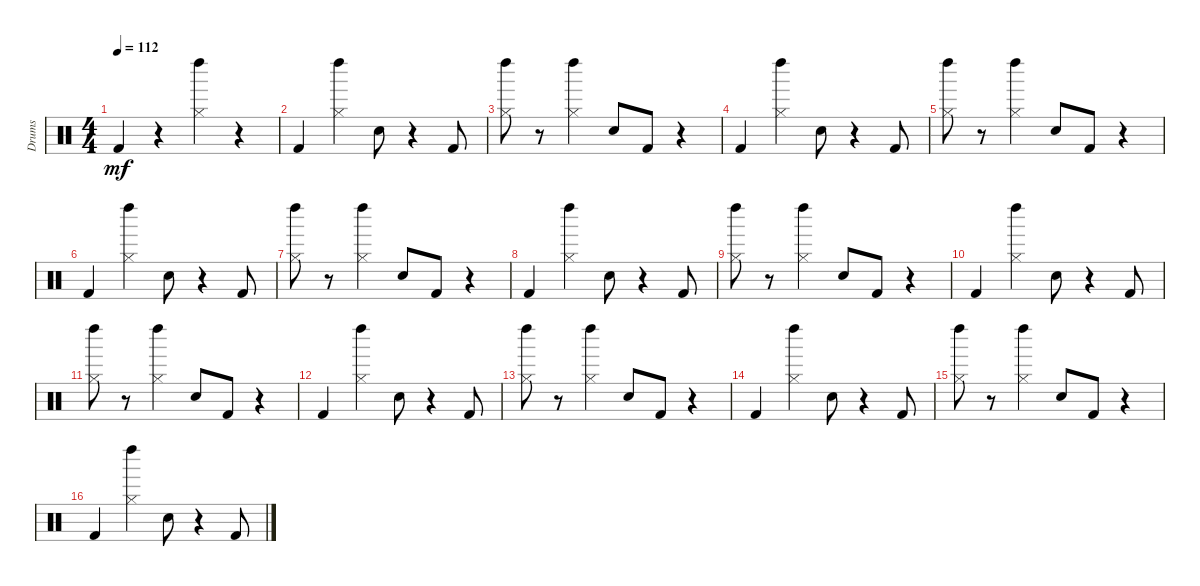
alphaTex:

\track ("Drums" "Drums") {instrument percussion}
\staff {score}
\articulation defaults
\ts (4 4)
\tempo 112
\clef neutral
\ks c "Kick (hit) 2".4{dy mf}
r.4 ("Hi-Hat (closed)" "Left Maraca (hit)").4 r.4 |
"Kick (hit) 2".4 ("Left Maraca (hit)" "Hi-Hat (closed)").4 "Snare (hit) 2".8 r.4 "Kick (hit) 2".8 |
("Left Maraca (hit)" "Hi-Hat (closed)").8 r.8 ("Left Maraca (hit)" "Hi-Hat (closed)").4 "Snare (hit) 2".8 "Kick (hit) 2".8 r.4 |
"Kick (hit) 2".4 ("Left Maraca (hit)" "Hi-Hat (closed)").4 "Snare (hit) 2".8 r.4 "Kick (hit) 2".8 |
("Left Maraca (hit)" "Hi-Hat (closed)").8 r.8 ("Left Maraca (hit)" "Hi-Hat (closed)").4 "Snare (hit) 2".8 "Kick (hit) 2".8 r.4 |
"Kick (hit) 2".4 ("Left Maraca (hit)" "Hi-Hat (closed)").4 "Snare (hit) 2".8 r.4 "Kick (hit) 2".8 |
("Left Maraca (hit)" "Hi-Hat (closed)").8 r.8 ("Left Maraca (hit)" "Hi-Hat (closed)").4 "Snare (hit) 2".8 "Kick (hit) 2".8 r.4 |
"Kick (hit) 2".4 ("Left Maraca (hit)" "Hi-Hat (closed)").4 "Snare (hit) 2".8 r.4 "Kick (hit) 2".8 |
("Left Maraca (hit)" "Hi-Hat (closed)").8 r.8 ("Left Maraca (hit)" "Hi-Hat (closed)").4 "Snare (hit) 2".8 "Kick (hit) 2".8 r.4 |
"Kick (hit) 2".4 ("Left Maraca (hit)" "Hi-Hat (closed)").4 "Snare (hit) 2".8 r.4 "Kick (hit) 2".8 |
("Left Maraca (hit)" "Hi-Hat (closed)").8 r.8 ("Left Maraca (hit)" "Hi-Hat (closed)").4 "Snare (hit) 2".8 "Kick (hit) 2".8 r.4 |
"Kick (hit) 2".4 ("Left Maraca (hit)" "Hi-Hat (closed)").4 "Snare (hit) 2".8 r.4 "Kick (hit) 2".8 |
("Left Maraca (hit)" "Hi-Hat (closed)").8 r.8 ("Left Maraca (hit)" "Hi-Hat (closed)").4 "Snare (hit) 2".8 "Kick (hit) 2".8 r.4 |
"Kick (hit) 2".4 ("Left Maraca (hit)" "Hi-Hat (closed)").4 "Snare (hit) 2".8 r.4 "Kick (hit) 2".8 |
("Left Maraca (hit)" "Hi-Hat (closed)").8 r.8 ("Left Maraca (hit)" "Hi-Hat (closed)").4 "Snare (hit) 2".8 "Kick (hit) 2".8 r.4 |
"Kick (hit) 2".4 ("Left Maraca (hit)" "Hi-Hat (closed)").4 "Snare (hit) 2".8 r.4 "Kick (hit) 2".8
